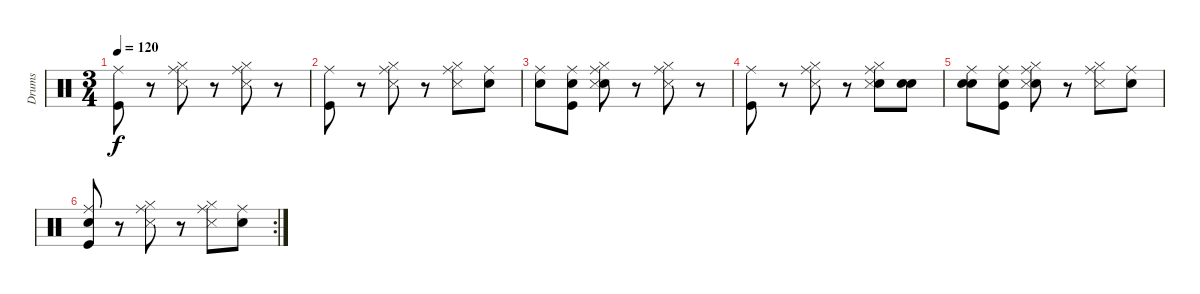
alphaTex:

\track ("Drums " "Drums ") {instrument percussion}
\staff {score}
\articulation defaults
\ts (3 4)
\tempo 120
\clef neutral
\ks c
("Kick (hit)" "Ride (middle)").8{dy f} r.8 ("Hi-Hat (closed)" "Snare (side stick) 3" "Ride (middle)").8 r.8 ("Hi-Hat (closed)" "Snare (side stick) 3" "Ride (middle)").8 r.8 |
("Kick (hit)" "Ride (middle)").8 r.8 ("Hi-Hat (closed)" "Snare (side stick) 3" "Ride (middle)").8 r.8 ("Hi-Hat (closed)" "Snare (side stick) 3" "Ride (middle)").8 ("Snare (hit)" "Ride (middle)").8 |
("Snare (hit)" "Ride (middle)").8 ("Snare (hit)" "Kick (hit)" "Ride (middle)").8 ("Snare (hit)" "Hi-Hat (closed)" "Snare (side stick) 3" "Ride (middle)").8 r.8 ("Hi-Hat (closed)" "Snare (side stick) 3" "Ride (middle)").8 r.8 |
("Kick (hit)" "Ride (middle)").8 r.8 ("Hi-Hat (closed)" "Snare (side stick) 3" "Ride (middle)").8 r.8 ("Snare (hit) 2" "Hi-Hat (closed)" "Snare (side stick) 3" "Ride (middle)").8 ("Snare (hit)" "Snare (hit) 2").8 |
("Snare (hit)" "Snare (hit) 2" "Ride (middle)").8 ("Snare (hit)" "Kick (hit)" "Ride (middle)").8 ("Snare (hit)" "Hi-Hat (closed)" "Snare (side stick) 3" "Ride (middle)").8 r.8 ("Hi-Hat (closed)" "Snare (side stick) 3" "Ride (middle)").8 ("Snare (hit)" "Ride (middle)").8 |
\rc 2
("Snare (hit)" "Kick (hit)" "Ride (middle)").8 r.8 ("Hi-Hat (closed)" "Snare (side stick) 3" "Ride (middle)").8 r.8 ("Hi-Hat (closed)" "Snare (side stick) 3" "Ride (middle)").8 ("Snare (hit)" "Ride (middle)").8
